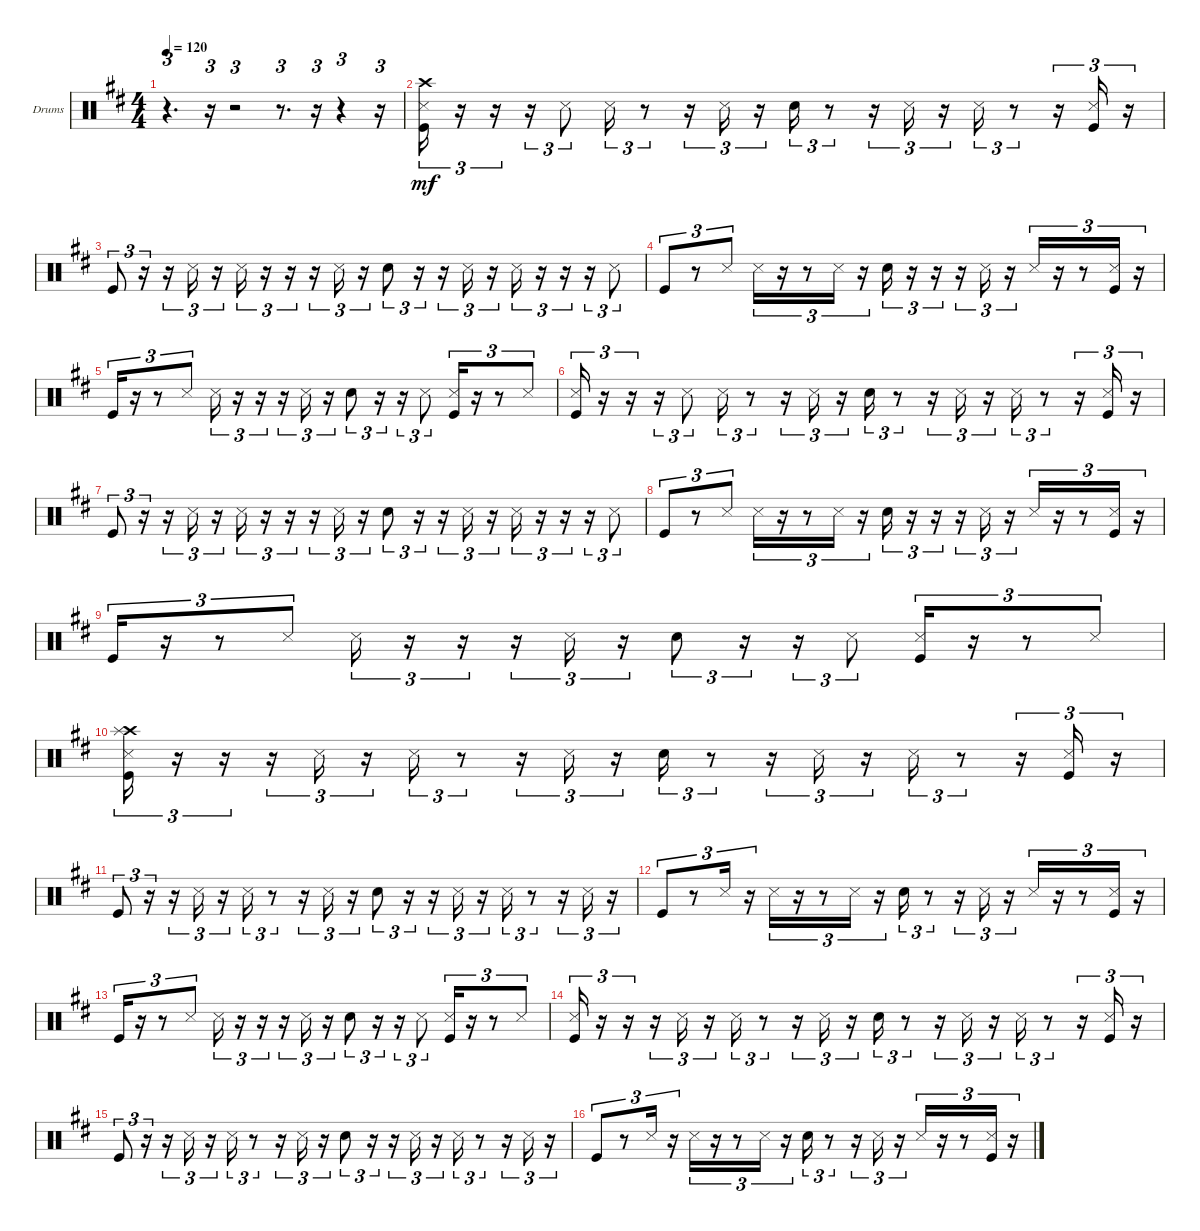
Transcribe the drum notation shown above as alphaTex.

\defaultSystemsLayout 4
\bracketExtendMode groupsimilarinstruments
\firstSystemTrackNameOrientation horizontal
\otherSystemsTrackNameOrientation horizontal
\track ("Drumkit" "Drums") {multiBarRest instrument percussion}
\staff {score}
\articulation defaults
\ts (4 4)
\tempo 120
\clef neutral
\ks d
r.4{d tu (3 2) dy mf} r.16{tu (3 2)} r.2{tu (3 2)} r.8{d tu (3 2)} r.16{tu (3 2)} r.4{tu (3 2)} r.16{tu (3 2)} |
("Crash high (hit)" "Kick (hit)" "Snare (side stick) 3").16{tu (3 2)} r.16{tu (3 2)} r.16{tu (3 2)} r.16{tu (3 2)} "Snare (side stick) 3".8{tu (3 2)} "Snare (side stick) 3".16{tu (3 2)} r.8{tu (3 2)} r.16{tu (3 2)} "Snare (side stick) 3".16{tu (3 2)} r.16{tu (3 2)} "Snare (hit) 2".16{tu (3 2)} r.8{tu (3 2)} r.16{tu (3 2)} "Snare (side stick) 3".16{tu (3 2)} r.16{tu (3 2)} "Snare (side stick) 3".16{tu (3 2)} r.8{tu (3 2)} r.16{tu (3 2)} ("Kick (hit)" "Snare (side stick) 3").16{tu (3 2)} r.16{tu (3 2)} |
"Kick (hit)".8{tu (3 2)} r.16{tu (3 2)} r.16{tu (3 2)} "Snare (side stick) 3".16{tu (3 2)} r.16{tu (3 2)} "Snare (side stick) 3".16{tu (3 2)} r.16{tu (3 2)} r.16{tu (3 2)} r.16{tu (3 2)} "Snare (side stick) 3".16{tu (3 2)} r.16{tu (3 2)} "Snare (hit) 2".8{tu (3 2)} r.16{tu (3 2)} r.16{tu (3 2)} "Snare (side stick) 3".16{tu (3 2)} r.16{tu (3 2)} "Snare (side stick) 3".16{tu (3 2)} r.16{tu (3 2)} r.16{tu (3 2)} r.16{tu (3 2)} "Snare (side stick) 3".8{tu (3 2)} |
"Kick (hit)".8{tu (3 2)} r.8{tu (3 2)} "Snare (side stick) 3".8{tu (3 2)} "Snare (side stick) 3".16{tu (3 2)} r.16{tu (3 2)} r.8{tu (3 2)} "Snare (side stick) 3".16{tu (3 2)} r.16{tu (3 2)} "Snare (hit) 2".16{tu (3 2)} r.16{tu (3 2)} r.16{tu (3 2)} r.16{tu (3 2)} "Snare (side stick) 3".16{tu (3 2)} r.16{tu (3 2)} "Snare (side stick) 3".16{tu (3 2)} r.16{tu (3 2)} r.8{tu (3 2)} ("Kick (hit)" "Snare (side stick) 3").16{tu (3 2)} r.16{tu (3 2)} |
"Kick (hit)".16{tu (3 2)} r.16{tu (3 2)} r.8{tu (3 2)} "Snare (side stick) 3".8{tu (3 2)} "Snare (side stick) 3".16{tu (3 2)} r.16{tu (3 2)} r.16{tu (3 2)} r.16{tu (3 2)} "Snare (side stick) 3".16{tu (3 2)} r.16{tu (3 2)} "Snare (hit) 2".8{tu (3 2)} r.16{tu (3 2)} r.16{tu (3 2)} "Snare (side stick) 3".8{tu (3 2)} ("Kick (hit)" "Snare (side stick) 3").16{tu (3 2)} r.16{tu (3 2)} r.8{tu (3 2)} "Snare (side stick) 3".8{tu (3 2)} |
("Kick (hit)" "Snare (side stick) 3").16{tu (3 2)} r.16{tu (3 2)} r.16{tu (3 2)} r.16{tu (3 2)} "Snare (side stick) 3".8{tu (3 2)} "Snare (side stick) 3".16{tu (3 2)} r.8{tu (3 2)} r.16{tu (3 2)} "Snare (side stick) 3".16{tu (3 2)} r.16{tu (3 2)} "Snare (hit) 2".16{tu (3 2)} r.8{tu (3 2)} r.16{tu (3 2)} "Snare (side stick) 3".16{tu (3 2)} r.16{tu (3 2)} "Snare (side stick) 3".16{tu (3 2)} r.8{tu (3 2)} r.16{tu (3 2)} ("Kick (hit)" "Snare (side stick) 3").16{tu (3 2)} r.16{tu (3 2)} |
"Kick (hit)".8{tu (3 2)} r.16{tu (3 2)} r.16{tu (3 2)} "Snare (side stick) 3".16{tu (3 2)} r.16{tu (3 2)} "Snare (side stick) 3".16{tu (3 2)} r.16{tu (3 2)} r.16{tu (3 2)} r.16{tu (3 2)} "Snare (side stick) 3".16{tu (3 2)} r.16{tu (3 2)} "Snare (hit) 2".8{tu (3 2)} r.16{tu (3 2)} r.16{tu (3 2)} "Snare (side stick) 3".16{tu (3 2)} r.16{tu (3 2)} "Snare (side stick) 3".16{tu (3 2)} r.16{tu (3 2)} r.16{tu (3 2)} r.16{tu (3 2)} "Snare (side stick) 3".8{tu (3 2)} |
"Kick (hit)".8{tu (3 2)} r.8{tu (3 2)} "Snare (side stick) 3".8{tu (3 2)} "Snare (side stick) 3".16{tu (3 2)} r.16{tu (3 2)} r.8{tu (3 2)} "Snare (side stick) 3".16{tu (3 2)} r.16{tu (3 2)} "Snare (hit) 2".16{tu (3 2)} r.16{tu (3 2)} r.16{tu (3 2)} r.16{tu (3 2)} "Snare (side stick) 3".16{tu (3 2)} r.16{tu (3 2)} "Snare (side stick) 3".16{tu (3 2)} r.16{tu (3 2)} r.8{tu (3 2)} ("Kick (hit)" "Snare (side stick) 3").16{tu (3 2)} r.16{tu (3 2)} |
"Kick (hit)".16{tu (3 2)} r.16{tu (3 2)} r.8{tu (3 2)} "Snare (side stick) 3".8{tu (3 2)} "Snare (side stick) 3".16{tu (3 2)} r.16{tu (3 2)} r.16{tu (3 2)} r.16{tu (3 2)} "Snare (side stick) 3".16{tu (3 2)} r.16{tu (3 2)} "Snare (hit) 2".8{tu (3 2)} r.16{tu (3 2)} r.16{tu (3 2)} "Snare (side stick) 3".8{tu (3 2)} ("Kick (hit)" "Snare (side stick) 3").16{tu (3 2)} r.16{tu (3 2)} r.8{tu (3 2)} "Snare (side stick) 3".8{tu (3 2)} |
("Crash high (hit)" "Splash (hit)" "Kick (hit)" "Snare (side stick) 3").16{tu (3 2)} r.16{tu (3 2)} r.16{tu (3 2)} r.16{tu (3 2)} "Snare (side stick) 3".16{tu (3 2)} r.16{tu (3 2)} "Snare (side stick) 3".16{tu (3 2)} r.8{tu (3 2)} r.16{tu (3 2)} "Snare (side stick) 3".16{tu (3 2)} r.16{tu (3 2)} "Snare (hit) 2".16{tu (3 2)} r.8{tu (3 2)} r.16{tu (3 2)} "Snare (side stick) 3".16{tu (3 2)} r.16{tu (3 2)} "Snare (side stick) 3".16{tu (3 2)} r.8{tu (3 2)} r.16{tu (3 2)} ("Kick (hit)" "Snare (side stick) 3").16{tu (3 2)} r.16{tu (3 2)} |
"Kick (hit)".8{tu (3 2)} r.16{tu (3 2)} r.16{tu (3 2)} "Snare (side stick) 3".16{tu (3 2)} r.16{tu (3 2)} "Snare (side stick) 3".16{tu (3 2)} r.8{tu (3 2)} r.16{tu (3 2)} "Snare (side stick) 3".16{tu (3 2)} r.16{tu (3 2)} "Snare (hit) 2".8{tu (3 2)} r.16{tu (3 2)} r.16{tu (3 2)} "Snare (side stick) 3".16{tu (3 2)} r.16{tu (3 2)} "Snare (side stick) 3".16{tu (3 2)} r.8{tu (3 2)} r.16{tu (3 2)} "Snare (side stick) 3".16{tu (3 2)} r.16{tu (3 2)} |
"Kick (hit)".8{tu (3 2)} r.8{tu (3 2)} "Snare (side stick) 3".16{tu (3 2)} r.16{tu (3 2)} "Snare (side stick) 3".16{tu (3 2)} r.16{tu (3 2)} r.8{tu (3 2)} "Snare (side stick) 3".16{tu (3 2)} r.16{tu (3 2)} "Snare (hit) 2".16{tu (3 2)} r.8{tu (3 2)} r.16{tu (3 2)} "Snare (side stick) 3".16{tu (3 2)} r.16{tu (3 2)} "Snare (side stick) 3".16{tu (3 2)} r.16{tu (3 2)} r.8{tu (3 2)} ("Kick (hit)" "Snare (side stick) 3").16{tu (3 2)} r.16{tu (3 2)} |
"Kick (hit)".16{tu (3 2)} r.16{tu (3 2)} r.8{tu (3 2)} "Snare (side stick) 3".8{tu (3 2)} "Snare (side stick) 3".16{tu (3 2)} r.16{tu (3 2)} r.16{tu (3 2)} r.16{tu (3 2)} "Snare (side stick) 3".16{tu (3 2)} r.16{tu (3 2)} "Snare (hit) 2".8{tu (3 2)} r.16{tu (3 2)} r.16{tu (3 2)} "Snare (side stick) 3".8{tu (3 2)} ("Kick (hit)" "Snare (side stick) 3").16{tu (3 2)} r.16{tu (3 2)} r.8{tu (3 2)} "Snare (side stick) 3".8{tu (3 2)} |
("Kick (hit)" "Snare (side stick) 3").16{tu (3 2)} r.16{tu (3 2)} r.16{tu (3 2)} r.16{tu (3 2)} "Snare (side stick) 3".16{tu (3 2)} r.16{tu (3 2)} "Snare (side stick) 3".16{tu (3 2)} r.8{tu (3 2)} r.16{tu (3 2)} "Snare (side stick) 3".16{tu (3 2)} r.16{tu (3 2)} "Snare (hit) 2".16{tu (3 2)} r.8{tu (3 2)} r.16{tu (3 2)} "Snare (side stick) 3".16{tu (3 2)} r.16{tu (3 2)} "Snare (side stick) 3".16{tu (3 2)} r.8{tu (3 2)} r.16{tu (3 2)} ("Kick (hit)" "Snare (side stick) 3").16{tu (3 2)} r.16{tu (3 2)} |
"Kick (hit)".8{tu (3 2)} r.16{tu (3 2)} r.16{tu (3 2)} "Snare (side stick) 3".16{tu (3 2)} r.16{tu (3 2)} "Snare (side stick) 3".16{tu (3 2)} r.8{tu (3 2)} r.16{tu (3 2)} "Snare (side stick) 3".16{tu (3 2)} r.16{tu (3 2)} "Snare (hit) 2".8{tu (3 2)} r.16{tu (3 2)} r.16{tu (3 2)} "Snare (side stick) 3".16{tu (3 2)} r.16{tu (3 2)} "Snare (side stick) 3".16{tu (3 2)} r.8{tu (3 2)} r.16{tu (3 2)} "Snare (side stick) 3".16{tu (3 2)} r.16{tu (3 2)} |
"Kick (hit)".8{tu (3 2)} r.8{tu (3 2)} "Snare (side stick) 3".16{tu (3 2)} r.16{tu (3 2)} "Snare (side stick) 3".16{tu (3 2)} r.16{tu (3 2)} r.8{tu (3 2)} "Snare (side stick) 3".16{tu (3 2)} r.16{tu (3 2)} "Snare (hit) 2".16{tu (3 2)} r.8{tu (3 2)} r.16{tu (3 2)} "Snare (side stick) 3".16{tu (3 2)} r.16{tu (3 2)} "Snare (side stick) 3".16{tu (3 2)} r.16{tu (3 2)} r.8{tu (3 2)} ("Kick (hit)" "Snare (side stick) 3").16{tu (3 2)} r.16{tu (3 2)}
